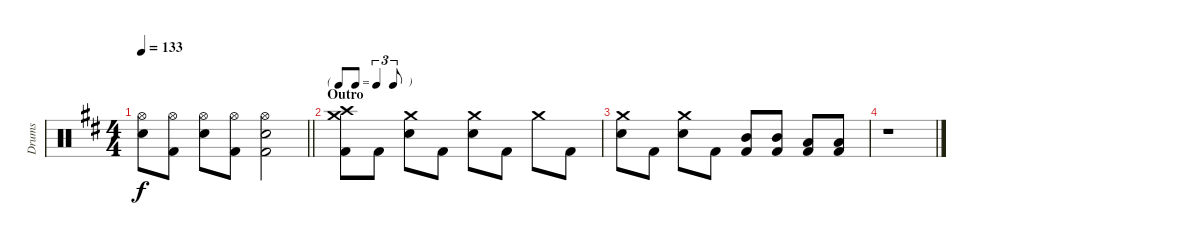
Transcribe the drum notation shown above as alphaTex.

\track ("Drums" "Drums") {instrument percussion}
\staff {score}
\articulation defaults
\ts (4 4)
\tempo 133
\clef neutral
\barLineRight lightlight
\ks d
("Hi-Hat (open)" "Snare (hit) 2").8{dy f} ("Hi-Hat (open)" "Kick (hit) 2").8 ("Hi-Hat (open)" "Snare (hit) 2").8 ("Hi-Hat (open)" "Kick (hit) 2").8 ("Hi-Hat (open)" "Snare (hit) 2" "Kick (hit) 2").2 |
\tf triplet8th
\section ("" "Outro")
("Crash high (hit)" "Crash medium (hit)" "Kick (hit) 2").8 "Kick (hit) 2".8 ("Crash medium (hit)" "Snare (hit) 2").8 "Kick (hit) 2".8 ("Crash medium (hit)" "Snare (hit) 2").8 "Kick (hit) 2".8 "Crash medium (hit)".8 "Kick (hit) 2".8 |
("Crash medium (hit)" "Snare (hit) 2").8 "Kick (hit) 2".8 ("Crash medium (hit)" "Snare (hit) 2").8 "Kick (hit) 2".8 ("Mid Tom (hit)" "Kick (hit) 2").8 ("Mid Tom (hit)" "Kick (hit) 2").8 ("Low Tom (hit)" "Kick (hit) 2").8 ("Low Tom (hit)" "Kick (hit) 2").8 |
r.1
